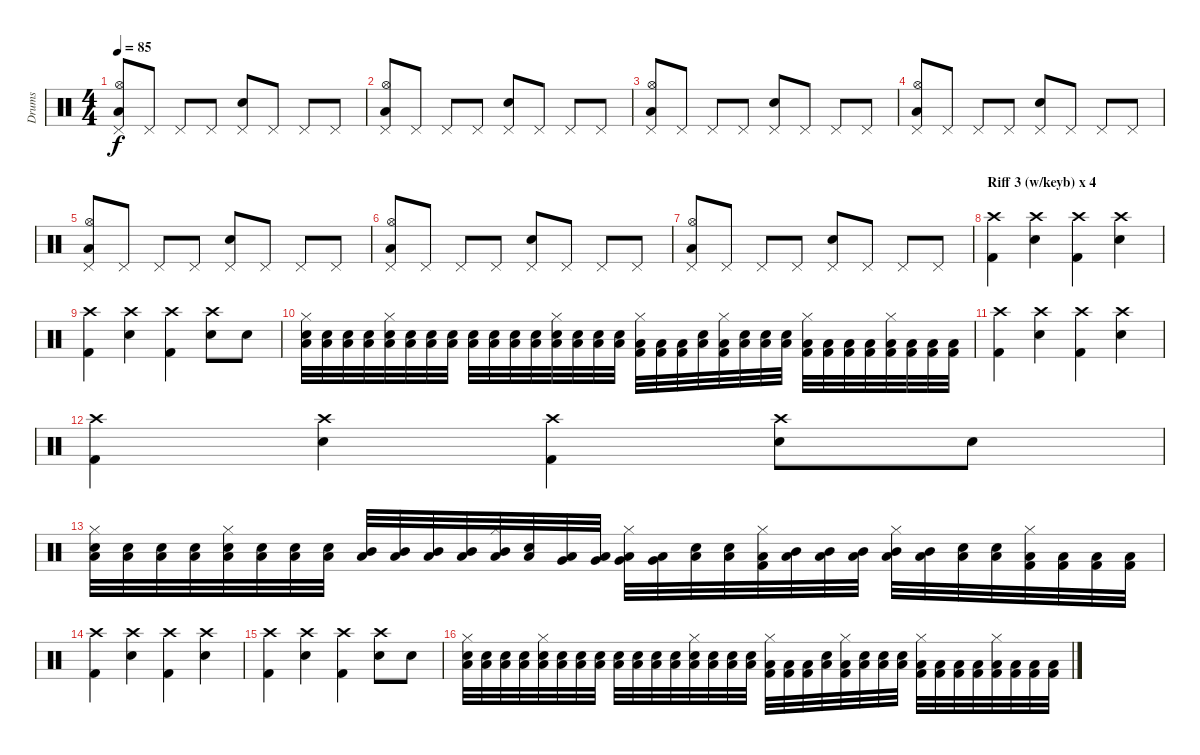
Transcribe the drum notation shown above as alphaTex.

\track ("Drums" "Drums") {instrument percussion}
\staff {score}
\articulation defaults
\ts (4 4)
\tempo 85
\clef neutral
\ks c
("Pedal Hi-Hat (hit)" "Hi-Hat (open)" "Low Tom (hit)").8{dy f} "Pedal Hi-Hat (hit)".8 "Pedal Hi-Hat (hit)".8 "Pedal Hi-Hat (hit)".8 ("Pedal Hi-Hat (hit)" "Snare (hit) 2").8 "Pedal Hi-Hat (hit)".8 "Pedal Hi-Hat (hit)".8 "Pedal Hi-Hat (hit)".8 |
("Pedal Hi-Hat (hit)" "Hi-Hat (open)" "Low Tom (hit)").8 "Pedal Hi-Hat (hit)".8 "Pedal Hi-Hat (hit)".8 "Pedal Hi-Hat (hit)".8 ("Pedal Hi-Hat (hit)" "Snare (hit) 2").8 "Pedal Hi-Hat (hit)".8 "Pedal Hi-Hat (hit)".8 "Pedal Hi-Hat (hit)".8 |
("Pedal Hi-Hat (hit)" "Hi-Hat (open)" "Low Tom (hit)").8 "Pedal Hi-Hat (hit)".8 "Pedal Hi-Hat (hit)".8 "Pedal Hi-Hat (hit)".8 ("Pedal Hi-Hat (hit)" "Snare (hit) 2").8 "Pedal Hi-Hat (hit)".8 "Pedal Hi-Hat (hit)".8 "Pedal Hi-Hat (hit)".8 |
("Pedal Hi-Hat (hit)" "Hi-Hat (open)" "Low Tom (hit)").8 "Pedal Hi-Hat (hit)".8 "Pedal Hi-Hat (hit)".8 "Pedal Hi-Hat (hit)".8 ("Pedal Hi-Hat (hit)" "Snare (hit) 2").8 "Pedal Hi-Hat (hit)".8 "Pedal Hi-Hat (hit)".8 "Pedal Hi-Hat (hit)".8 |
("Pedal Hi-Hat (hit)" "Hi-Hat (open)" "Low Tom (hit)").8 "Pedal Hi-Hat (hit)".8 "Pedal Hi-Hat (hit)".8 "Pedal Hi-Hat (hit)".8 ("Pedal Hi-Hat (hit)" "Snare (hit) 2").8 "Pedal Hi-Hat (hit)".8 "Pedal Hi-Hat (hit)".8 "Pedal Hi-Hat (hit)".8 |
("Pedal Hi-Hat (hit)" "Hi-Hat (open)" "Low Tom (hit)").8 "Pedal Hi-Hat (hit)".8 "Pedal Hi-Hat (hit)".8 "Pedal Hi-Hat (hit)".8 ("Pedal Hi-Hat (hit)" "Snare (hit) 2").8 "Pedal Hi-Hat (hit)".8 "Pedal Hi-Hat (hit)".8 "Pedal Hi-Hat (hit)".8 |
("Pedal Hi-Hat (hit)" "Hi-Hat (open)" "Low Tom (hit)").8 "Pedal Hi-Hat (hit)".8 "Pedal Hi-Hat (hit)".8 "Pedal Hi-Hat (hit)".8 ("Pedal Hi-Hat (hit)" "Snare (hit) 2").8 "Pedal Hi-Hat (hit)".8 "Pedal Hi-Hat (hit)".8 "Pedal Hi-Hat (hit)".8 |
\section ("" "Riff 3 (w/keyb) x 4")
("Crash high (hit)" "Kick (hit) 2").4 ("Crash high (hit)" "Snare (hit) 2").4 ("Crash high (hit)" "Kick (hit) 2").4 ("Crash high (hit)" "Snare (hit) 2").4 |
("Crash high (hit)" "Kick (hit) 2").4 ("Crash high (hit)" "Snare (hit) 2").4 ("Crash high (hit)" "Kick (hit) 2").4 ("Crash high (hit)" "Snare (hit) 2").8 "Snare (hit) 2".8 |
("Low Tom (hit)" "Electric Snare (hit)" "Hi-Hat (closed)").32 ("Low Tom (hit)" "Electric Snare (hit)").32 ("Low Tom (hit)" "Electric Snare (hit)").32 ("Low Tom (hit)" "Electric Snare (hit)").32 ("Low Tom (hit)" "Snare (hit) 2" "Hi-Hat (closed)").32 ("Low Tom (hit)" "Snare (hit) 2").32 ("Low Tom (hit)" "Snare (hit) 2").32 ("Low Tom (hit)" "Snare (hit) 2").32 ("Low Tom (hit)" "Electric Snare (hit)").32 ("Low Tom (hit)" "Electric Snare (hit)").32 ("Low Tom (hit)" "Electric Snare (hit)").32 ("Low Tom (hit)" "Electric Snare (hit)").32 ("Low Tom (hit)" "Electric Snare (hit)" "Hi-Hat (closed)").32 ("Low Tom (hit)" "Snare (hit) 2").32 ("Low Tom (hit)" "Snare (hit) 2").32 ("Low Tom (hit)" "Snare (hit) 2").32 ("Low Tom (hit)" "Kick (hit) 2" "Hi-Hat (closed)").32 ("Low Tom (hit)" "Kick (hit) 2").32 ("Low Tom (hit)" "Kick (hit) 2").32 ("Low Tom (hit)" "Snare (hit) 2").32 ("Low Tom (hit)" "Kick (hit) 2" "Hi-Hat (closed)").32 ("Low Tom (hit)" "Electric Snare (hit)").32 ("Low Tom (hit)" "Electric Snare (hit)").32 ("Low Tom (hit)" "Electric Snare (hit)").32 ("Low Tom (hit)" "Kick (hit) 2" "Hi-Hat (closed)").32 ("Low Tom (hit)" "Kick (hit) 2").32 ("Low Tom (hit)" "Kick (hit) 2").32 ("Low Tom (hit)" "Kick (hit) 2").32 ("Low Tom (hit)" "Kick (hit) 2" "Hi-Hat (closed)").32 ("Low Tom (hit)" "Kick (hit) 2").32 ("Low Tom (hit)" "Kick (hit) 2").32 ("Low Tom (hit)" "Kick (hit) 2").32 |
("Crash high (hit)" "Kick (hit) 2").4 ("Crash high (hit)" "Snare (hit) 2").4 ("Crash high (hit)" "Kick (hit) 2").4 ("Crash high (hit)" "Snare (hit) 2").4 |
("Crash high (hit)" "Kick (hit) 2").4 ("Crash high (hit)" "Snare (hit) 2").4 ("Crash high (hit)" "Kick (hit) 2").4 ("Crash high (hit)" "Snare (hit) 2").8 "Snare (hit) 2".8 |
("Low Tom (hit)" "Electric Snare (hit)" "Hi-Hat (closed)").32 ("Low Tom (hit)" "Electric Snare (hit)").32 ("Low Tom (hit)" "Electric Snare (hit)").32 ("Low Tom (hit)" "Electric Snare (hit)").32 ("Low Tom (hit)" "Snare (hit) 2" "Hi-Hat (closed)").32 ("Low Tom (hit)" "Snare (hit) 2").32 ("Low Tom (hit)" "Electric Snare (hit)").32 ("Low Tom (hit)" "Electric Snare (hit)").32 ("Low Tom (hit)" "Mid Tom (hit)").32 ("Low Tom (hit)" "Mid Tom (hit)").32 ("Low Tom (hit)" "Mid Tom (hit)").32 ("Low Tom (hit)" "Mid Tom (hit)").32 ("Low Tom (hit)" "Mid Tom (hit)" "Hi-Hat (closed)").32 ("Low Tom (hit)" "Snare (hit) 2").32 ("Low Tom (hit)" "Very Low Tom (hit)").32 ("Low Tom (hit)" "Very Low Tom (hit)").32 ("Low Tom (hit)" "Very Low Tom (hit)" "Hi-Hat (closed)").32 ("Low Tom (hit)" "Very Low Tom (hit)").32 ("Low Tom (hit)" "Electric Snare (hit)").32 ("Low Tom (hit)" "Electric Snare (hit)").32 ("Low Tom (hit)" "Kick (hit) 2" "Hi-Hat (closed)").32 ("Low Tom (hit)" "Mid Tom (hit)").32 ("Low Tom (hit)" "Mid Tom (hit)").32 ("Low Tom (hit)" "Mid Tom (hit)").32 ("Low Tom (hit)" "Mid Tom (hit)" "Hi-Hat (closed)").32 ("Low Tom (hit)" "Mid Tom (hit)").32 ("Low Tom (hit)" "Electric Snare (hit)").32 ("Low Tom (hit)" "Electric Snare (hit)").32 ("Low Tom (hit)" "Kick (hit) 2" "Hi-Hat (closed)").32 ("Low Tom (hit)" "Kick (hit) 2").32 ("Low Tom (hit)" "Kick (hit) 2").32 ("Low Tom (hit)" "Kick (hit) 2").32 |
("Crash high (hit)" "Kick (hit) 2").4 ("Crash high (hit)" "Snare (hit) 2").4 ("Crash high (hit)" "Kick (hit) 2").4 ("Crash high (hit)" "Snare (hit) 2").4 |
("Crash high (hit)" "Kick (hit) 2").4 ("Crash high (hit)" "Snare (hit) 2").4 ("Crash high (hit)" "Kick (hit) 2").4 ("Crash high (hit)" "Snare (hit) 2").8 "Snare (hit) 2".8 |
("Low Tom (hit)" "Electric Snare (hit)" "Hi-Hat (closed)").32 ("Low Tom (hit)" "Electric Snare (hit)").32 ("Low Tom (hit)" "Electric Snare (hit)").32 ("Low Tom (hit)" "Electric Snare (hit)").32 ("Low Tom (hit)" "Snare (hit) 2" "Hi-Hat (closed)").32 ("Low Tom (hit)" "Snare (hit) 2").32 ("Low Tom (hit)" "Snare (hit) 2").32 ("Low Tom (hit)" "Snare (hit) 2").32 ("Low Tom (hit)" "Electric Snare (hit)").32 ("Low Tom (hit)" "Electric Snare (hit)").32 ("Low Tom (hit)" "Electric Snare (hit)").32 ("Low Tom (hit)" "Electric Snare (hit)").32 ("Low Tom (hit)" "Electric Snare (hit)" "Hi-Hat (closed)").32 ("Low Tom (hit)" "Snare (hit) 2").32 ("Low Tom (hit)" "Snare (hit) 2").32 ("Low Tom (hit)" "Snare (hit) 2").32 ("Low Tom (hit)" "Kick (hit) 2" "Hi-Hat (closed)").32 ("Low Tom (hit)" "Kick (hit) 2").32 ("Low Tom (hit)" "Kick (hit) 2").32 ("Low Tom (hit)" "Snare (hit) 2").32 ("Low Tom (hit)" "Kick (hit) 2" "Hi-Hat (closed)").32 ("Low Tom (hit)" "Electric Snare (hit)").32 ("Low Tom (hit)" "Electric Snare (hit)").32 ("Low Tom (hit)" "Electric Snare (hit)").32 ("Low Tom (hit)" "Kick (hit) 2" "Hi-Hat (closed)").32 ("Low Tom (hit)" "Kick (hit) 2").32 ("Low Tom (hit)" "Kick (hit) 2").32 ("Low Tom (hit)" "Kick (hit) 2").32 ("Low Tom (hit)" "Kick (hit) 2" "Hi-Hat (closed)").32 ("Low Tom (hit)" "Kick (hit) 2").32 ("Low Tom (hit)" "Kick (hit) 2").32 ("Low Tom (hit)" "Kick (hit) 2").32
